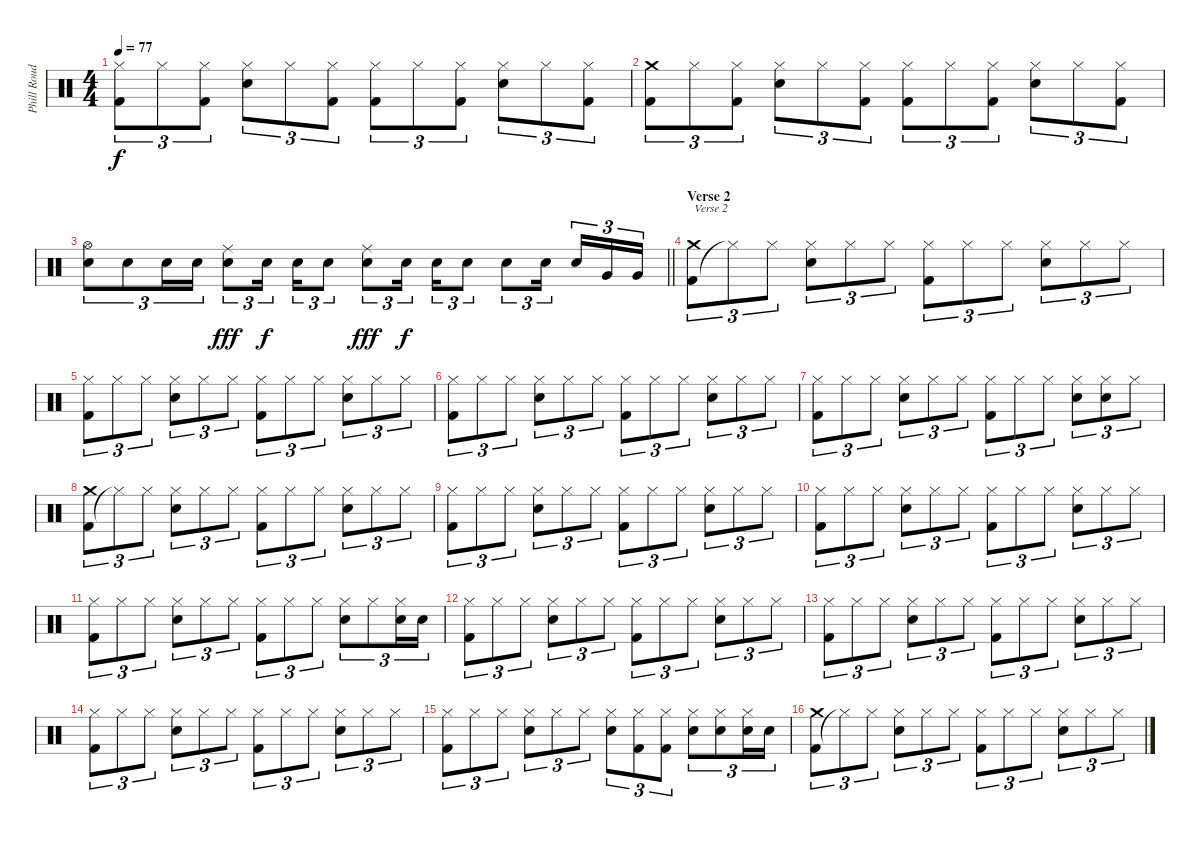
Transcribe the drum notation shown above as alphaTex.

\track ("Phill Roud" "Phill Roud") {instrument percussion}
\staff {score}
\articulation defaults
\ts (4 4)
\tempo 77
\clef neutral
\ks c
("Kick (hit) 2" "Hi-Hat (closed)").8{tu (3 2) dy f} "Hi-Hat (closed)".8{tu (3 2)} ("Kick (hit) 2" "Hi-Hat (closed)").8{tu (3 2)} ("Electric Snare (hit)" "Hi-Hat (closed)").8{tu (3 2)} "Hi-Hat (closed)".8{tu (3 2)} ("Kick (hit) 2" "Hi-Hat (closed)").8{tu (3 2)} ("Kick (hit) 2" "Hi-Hat (closed)").8{tu (3 2)} "Hi-Hat (closed)".8{tu (3 2)} ("Kick (hit) 2" "Hi-Hat (closed)").8{tu (3 2)} ("Electric Snare (hit)" "Hi-Hat (closed)").8{tu (3 2)} "Hi-Hat (closed)".8{tu (3 2)} ("Kick (hit) 2" "Hi-Hat (closed)").8{tu (3 2)} |
("Kick (hit) 2" "Crash medium (hit)").8{tu (3 2)} "Hi-Hat (closed)".8{tu (3 2)} ("Kick (hit) 2" "Hi-Hat (closed)").8{tu (3 2)} ("Electric Snare (hit)" "Hi-Hat (closed)").8{tu (3 2)} "Hi-Hat (closed)".8{tu (3 2)} ("Kick (hit) 2" "Hi-Hat (closed)").8{tu (3 2)} ("Kick (hit) 2" "Hi-Hat (closed)").8{tu (3 2)} "Hi-Hat (closed)".8{tu (3 2)} ("Kick (hit) 2" "Hi-Hat (closed)").8{tu (3 2)} ("Electric Snare (hit)" "Hi-Hat (closed)").8{tu (3 2)} "Hi-Hat (closed)".8{tu (3 2)} ("Kick (hit) 2" "Hi-Hat (closed)").8{tu (3 2)} |
\barLineRight lightlight
("Electric Snare (hit)" "Hi-Hat (open)").8{tu (3 2)} "Electric Snare (hit)".8{tu (3 2)} "Electric Snare (hit)".16{tu (3 2)} "Electric Snare (hit)".16{tu (3 2)} ("Electric Snare (hit)" "Ride (middle)").8{tu (3 2) dy fff} "Electric Snare (hit)".16{tu (3 2) dy f beam splitsecondary} "Electric Snare (hit)".16{tu (3 2)} "Electric Snare (hit)".8{tu (3 2)} ("Electric Snare (hit)" "Ride (middle)").8{tu (3 2) dy fff} "Electric Snare (hit)".16{tu (3 2) dy f beam splitsecondary} "Electric Snare (hit)".16{tu (3 2)} "Electric Snare (hit)".8{tu (3 2)} "Electric Snare (hit)".8{tu (3 2)} "Electric Snare (hit)".16{tu (3 2) beam splitsecondary} "Electric Snare (hit)".16{tu (3 2)} "Very Low Tom (hit)".16{tu (3 2)} "Very Low Tom (hit)".16{tu (3 2)} |
\section ("" "Verse 2")
("Kick (hit) 2" "Crash medium (hit)").8{tu (3 2) txt "Verse 2"} "Hi-Hat (closed)"{t}.8{tu (3 2)} "Hi-Hat (closed)".8{tu (3 2)} ("Electric Snare (hit)" "Hi-Hat (closed)").8{tu (3 2)} "Hi-Hat (closed)".8{tu (3 2)} "Hi-Hat (closed)".8{tu (3 2)} ("Kick (hit) 2" "Hi-Hat (closed)").8{tu (3 2)} "Hi-Hat (closed)".8{tu (3 2)} "Hi-Hat (closed)".8{tu (3 2)} ("Electric Snare (hit)" "Hi-Hat (closed)").8{tu (3 2)} "Hi-Hat (closed)".8{tu (3 2)} "Hi-Hat (closed)".8{tu (3 2)} |
("Kick (hit) 2" "Hi-Hat (closed)").8{tu (3 2)} "Hi-Hat (closed)".8{tu (3 2)} "Hi-Hat (closed)".8{tu (3 2)} ("Electric Snare (hit)" "Hi-Hat (closed)").8{tu (3 2)} "Hi-Hat (closed)".8{tu (3 2)} "Hi-Hat (closed)".8{tu (3 2)} ("Kick (hit) 2" "Hi-Hat (closed)").8{tu (3 2)} "Hi-Hat (closed)".8{tu (3 2)} "Hi-Hat (closed)".8{tu (3 2)} ("Electric Snare (hit)" "Hi-Hat (closed)").8{tu (3 2)} "Hi-Hat (closed)".8{tu (3 2)} "Hi-Hat (closed)".8{tu (3 2)} |
("Kick (hit) 2" "Hi-Hat (closed)").8{tu (3 2)} "Hi-Hat (closed)".8{tu (3 2)} "Hi-Hat (closed)".8{tu (3 2)} ("Electric Snare (hit)" "Hi-Hat (closed)").8{tu (3 2)} "Hi-Hat (closed)".8{tu (3 2)} "Hi-Hat (closed)".8{tu (3 2)} ("Kick (hit) 2" "Hi-Hat (closed)").8{tu (3 2)} "Hi-Hat (closed)".8{tu (3 2)} "Hi-Hat (closed)".8{tu (3 2)} ("Electric Snare (hit)" "Hi-Hat (closed)").8{tu (3 2)} "Hi-Hat (closed)".8{tu (3 2)} "Hi-Hat (closed)".8{tu (3 2)} |
("Kick (hit) 2" "Hi-Hat (closed)").8{tu (3 2)} "Hi-Hat (closed)".8{tu (3 2)} "Hi-Hat (closed)".8{tu (3 2)} ("Electric Snare (hit)" "Hi-Hat (closed)").8{tu (3 2)} "Hi-Hat (closed)".8{tu (3 2)} "Hi-Hat (closed)".8{tu (3 2)} ("Kick (hit) 2" "Hi-Hat (closed)").8{tu (3 2)} "Hi-Hat (closed)".8{tu (3 2)} "Hi-Hat (closed)".8{tu (3 2)} ("Electric Snare (hit)" "Hi-Hat (closed)").8{tu (3 2)} ("Electric Snare (hit)" "Hi-Hat (closed)").8{tu (3 2)} "Hi-Hat (closed)".8{tu (3 2)} |
("Kick (hit) 2" "Crash medium (hit)").8{tu (3 2)} "Hi-Hat (closed)"{t}.8{tu (3 2)} "Hi-Hat (closed)".8{tu (3 2)} ("Electric Snare (hit)" "Hi-Hat (closed)").8{tu (3 2)} "Hi-Hat (closed)".8{tu (3 2)} "Hi-Hat (closed)".8{tu (3 2)} ("Kick (hit) 2" "Hi-Hat (closed)").8{tu (3 2)} "Hi-Hat (closed)".8{tu (3 2)} "Hi-Hat (closed)".8{tu (3 2)} ("Electric Snare (hit)" "Hi-Hat (closed)").8{tu (3 2)} "Hi-Hat (closed)".8{tu (3 2)} "Hi-Hat (closed)".8{tu (3 2)} |
("Kick (hit) 2" "Hi-Hat (closed)").8{tu (3 2)} "Hi-Hat (closed)".8{tu (3 2)} "Hi-Hat (closed)".8{tu (3 2)} ("Electric Snare (hit)" "Hi-Hat (closed)").8{tu (3 2)} "Hi-Hat (closed)".8{tu (3 2)} "Hi-Hat (closed)".8{tu (3 2)} ("Kick (hit) 2" "Hi-Hat (closed)").8{tu (3 2)} "Hi-Hat (closed)".8{tu (3 2)} "Hi-Hat (closed)".8{tu (3 2)} ("Electric Snare (hit)" "Hi-Hat (closed)").8{tu (3 2)} "Hi-Hat (closed)".8{tu (3 2)} "Hi-Hat (closed)".8{tu (3 2)} |
("Kick (hit) 2" "Hi-Hat (closed)").8{tu (3 2)} "Hi-Hat (closed)".8{tu (3 2)} "Hi-Hat (closed)".8{tu (3 2)} ("Electric Snare (hit)" "Hi-Hat (closed)").8{tu (3 2)} "Hi-Hat (closed)".8{tu (3 2)} "Hi-Hat (closed)".8{tu (3 2)} ("Kick (hit) 2" "Hi-Hat (closed)").8{tu (3 2)} "Hi-Hat (closed)".8{tu (3 2)} "Hi-Hat (closed)".8{tu (3 2)} ("Electric Snare (hit)" "Hi-Hat (closed)").8{tu (3 2)} "Hi-Hat (closed)".8{tu (3 2)} "Hi-Hat (closed)".8{tu (3 2)} |
("Kick (hit) 2" "Hi-Hat (closed)").8{tu (3 2)} "Hi-Hat (closed)".8{tu (3 2)} "Hi-Hat (closed)".8{tu (3 2)} ("Electric Snare (hit)" "Hi-Hat (closed)").8{tu (3 2)} "Hi-Hat (closed)".8{tu (3 2)} "Hi-Hat (closed)".8{tu (3 2)} ("Kick (hit) 2" "Hi-Hat (closed)").8{tu (3 2)} "Hi-Hat (closed)".8{tu (3 2)} "Hi-Hat (closed)".8{tu (3 2)} ("Electric Snare (hit)" "Hi-Hat (closed)").8{tu (3 2)} "Hi-Hat (closed)".8{tu (3 2)} ("Electric Snare (hit)" "Hi-Hat (closed)").16{tu (3 2)} "Electric Snare (hit)".16{tu (3 2)} |
("Kick (hit) 2" "Hi-Hat (closed)").8{tu (3 2)} "Hi-Hat (closed)".8{tu (3 2)} "Hi-Hat (closed)".8{tu (3 2)} ("Electric Snare (hit)" "Hi-Hat (closed)").8{tu (3 2)} "Hi-Hat (closed)".8{tu (3 2)} "Hi-Hat (closed)".8{tu (3 2)} ("Kick (hit) 2" "Hi-Hat (closed)").8{tu (3 2)} "Hi-Hat (closed)".8{tu (3 2)} "Hi-Hat (closed)".8{tu (3 2)} ("Electric Snare (hit)" "Hi-Hat (closed)").8{tu (3 2)} "Hi-Hat (closed)".8{tu (3 2)} "Hi-Hat (closed)".8{tu (3 2)} |
("Kick (hit) 2" "Hi-Hat (closed)").8{tu (3 2)} "Hi-Hat (closed)".8{tu (3 2)} "Hi-Hat (closed)".8{tu (3 2)} ("Electric Snare (hit)" "Hi-Hat (closed)").8{tu (3 2)} "Hi-Hat (closed)".8{tu (3 2)} "Hi-Hat (closed)".8{tu (3 2)} ("Kick (hit) 2" "Hi-Hat (closed)").8{tu (3 2)} "Hi-Hat (closed)".8{tu (3 2)} "Hi-Hat (closed)".8{tu (3 2)} ("Electric Snare (hit)" "Hi-Hat (closed)").8{tu (3 2)} "Hi-Hat (closed)".8{tu (3 2)} "Hi-Hat (closed)".8{tu (3 2)} |
("Kick (hit) 2" "Hi-Hat (closed)").8{tu (3 2)} "Hi-Hat (closed)".8{tu (3 2)} "Hi-Hat (closed)".8{tu (3 2)} ("Electric Snare (hit)" "Hi-Hat (closed)").8{tu (3 2)} "Hi-Hat (closed)".8{tu (3 2)} "Hi-Hat (closed)".8{tu (3 2)} ("Kick (hit) 2" "Hi-Hat (closed)").8{tu (3 2)} "Hi-Hat (closed)".8{tu (3 2)} "Hi-Hat (closed)".8{tu (3 2)} ("Electric Snare (hit)" "Hi-Hat (closed)").8{tu (3 2)} "Hi-Hat (closed)".8{tu (3 2)} "Hi-Hat (closed)".8{tu (3 2)} |
("Kick (hit) 2" "Hi-Hat (closed)").8{tu (3 2)} "Hi-Hat (closed)".8{tu (3 2)} "Hi-Hat (closed)".8{tu (3 2)} ("Electric Snare (hit)" "Hi-Hat (closed)").8{tu (3 2)} "Hi-Hat (closed)".8{tu (3 2)} "Hi-Hat (closed)".8{tu (3 2)} ("Electric Snare (hit)" "Hi-Hat (closed)").8{tu (3 2)} ("Kick (hit) 2" "Hi-Hat (closed)").8{tu (3 2)} ("Kick (hit) 2" "Hi-Hat (closed)").8{tu (3 2)} ("Electric Snare (hit)" "Hi-Hat (closed)").8{tu (3 2)} ("Electric Snare (hit)" "Hi-Hat (closed)").8{tu (3 2)} ("Electric Snare (hit)" "Hi-Hat (closed)").16{tu (3 2)} "Electric Snare (hit)".16{tu (3 2)} |
("Kick (hit) 2" "Crash medium (hit)").8{tu (3 2)} "Hi-Hat (closed)"{t}.8{tu (3 2)} "Hi-Hat (closed)".8{tu (3 2)} ("Electric Snare (hit)" "Hi-Hat (closed)").8{tu (3 2)} "Hi-Hat (closed)".8{tu (3 2)} "Hi-Hat (closed)".8{tu (3 2)} ("Kick (hit) 2" "Hi-Hat (closed)").8{tu (3 2)} "Hi-Hat (closed)".8{tu (3 2)} "Hi-Hat (closed)".8{tu (3 2)} ("Electric Snare (hit)" "Hi-Hat (closed)").8{tu (3 2)} "Hi-Hat (closed)".8{tu (3 2)} "Hi-Hat (closed)".8{tu (3 2)}
